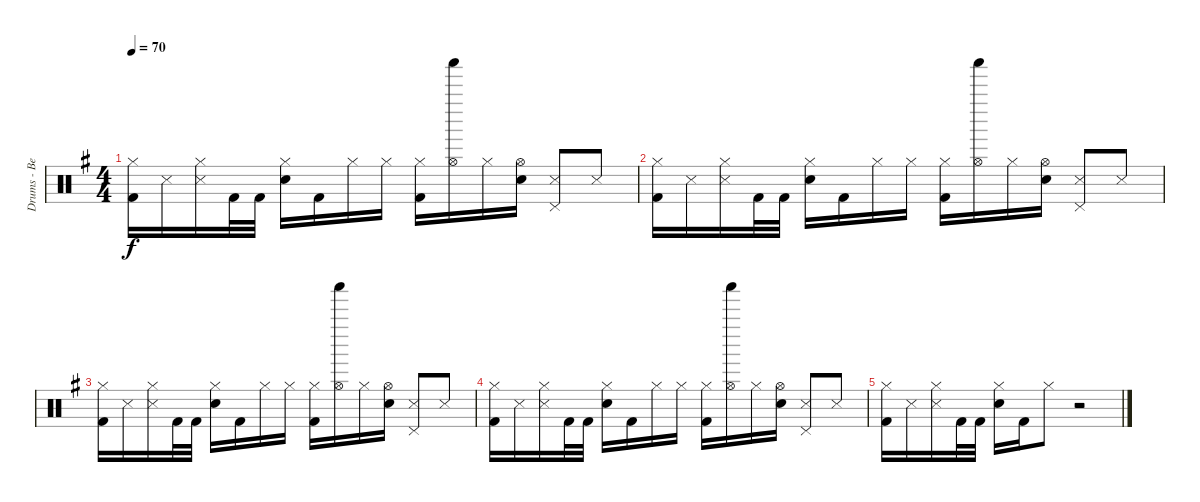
\track ("Drums - Ben Johnston" "Drums - Be") {instrument percussion}
\staff {score}
\articulation defaults
\ts (4 4)
\tempo 70
\clef neutral
\ks g
("Hi-Hat (closed)" "Kick (hit) 2").16{dy f balance 0} "Snare (side stick) 3".16{balance 8} ("Hi-Hat (closed)" "Snare (side stick) 3").16 "Kick (hit) 2".32 "Kick (hit) 2".32 ("Hi-Hat (closed)" "Electric Snare (hit)").16 "Kick (hit) 2".16 "Hi-Hat (closed)".16{balance 0} "Hi-Hat (closed)".16 ("Hi-Hat (closed)" "Kick (hit) 2").16 ("Hi-Hat (open)" "Shaker (hit)").16{balance 16} "Hi-Hat (closed)".16{balance 0} ("Hi-Hat (open)" "Electric Snare (hit)").16{balance 8} ("Snare (side stick) 3" "Pedal Hi-Hat (hit)").8 "Snare (side stick) 3".8 |
("Hi-Hat (closed)" "Kick (hit) 2").16{balance 0} "Snare (side stick) 3".16{balance 8} ("Hi-Hat (closed)" "Snare (side stick) 3").16 "Kick (hit) 2".32 "Kick (hit) 2".32 ("Hi-Hat (closed)" "Electric Snare (hit)").16 "Kick (hit) 2".16 "Hi-Hat (closed)".16{balance 0} "Hi-Hat (closed)".16 ("Hi-Hat (closed)" "Kick (hit) 2").16 ("Hi-Hat (open)" "Shaker (hit)").16{balance 16} "Hi-Hat (closed)".16{balance 0} ("Hi-Hat (open)" "Electric Snare (hit)").16{balance 8} ("Snare (side stick) 3" "Pedal Hi-Hat (hit)").8 "Snare (side stick) 3".8 |
("Hi-Hat (closed)" "Kick (hit) 2").16{balance 0} "Snare (side stick) 3".16{balance 8} ("Hi-Hat (closed)" "Snare (side stick) 3").16 "Kick (hit) 2".32 "Kick (hit) 2".32 ("Hi-Hat (closed)" "Electric Snare (hit)").16 "Kick (hit) 2".16 "Hi-Hat (closed)".16{balance 0} "Hi-Hat (closed)".16 ("Hi-Hat (closed)" "Kick (hit) 2").16 ("Hi-Hat (open)" "Shaker (hit)").16{balance 16} "Hi-Hat (closed)".16{balance 0} ("Hi-Hat (open)" "Electric Snare (hit)").16{balance 8} ("Snare (side stick) 3" "Pedal Hi-Hat (hit)").8 "Snare (side stick) 3".8 |
("Hi-Hat (closed)" "Kick (hit) 2").16{balance 0} "Snare (side stick) 3".16{balance 8} ("Hi-Hat (closed)" "Snare (side stick) 3").16 "Kick (hit) 2".32 "Kick (hit) 2".32 ("Hi-Hat (closed)" "Electric Snare (hit)").16 "Kick (hit) 2".16 "Hi-Hat (closed)".16{balance 0} "Hi-Hat (closed)".16 ("Hi-Hat (closed)" "Kick (hit) 2").16 ("Hi-Hat (open)" "Shaker (hit)").16{balance 16} "Hi-Hat (closed)".16{balance 0} ("Hi-Hat (open)" "Electric Snare (hit)").16{balance 8} ("Snare (side stick) 3" "Pedal Hi-Hat (hit)").8 "Snare (side stick) 3".8 |
("Hi-Hat (closed)" "Kick (hit) 2").16{balance 0} "Snare (side stick) 3".16{balance 8} ("Hi-Hat (closed)" "Snare (side stick) 3").16 "Kick (hit) 2".32 "Kick (hit) 2".32 ("Hi-Hat (closed)" "Electric Snare (hit)").16 "Kick (hit) 2".16 "Hi-Hat (closed)".8{balance 0} r.2
